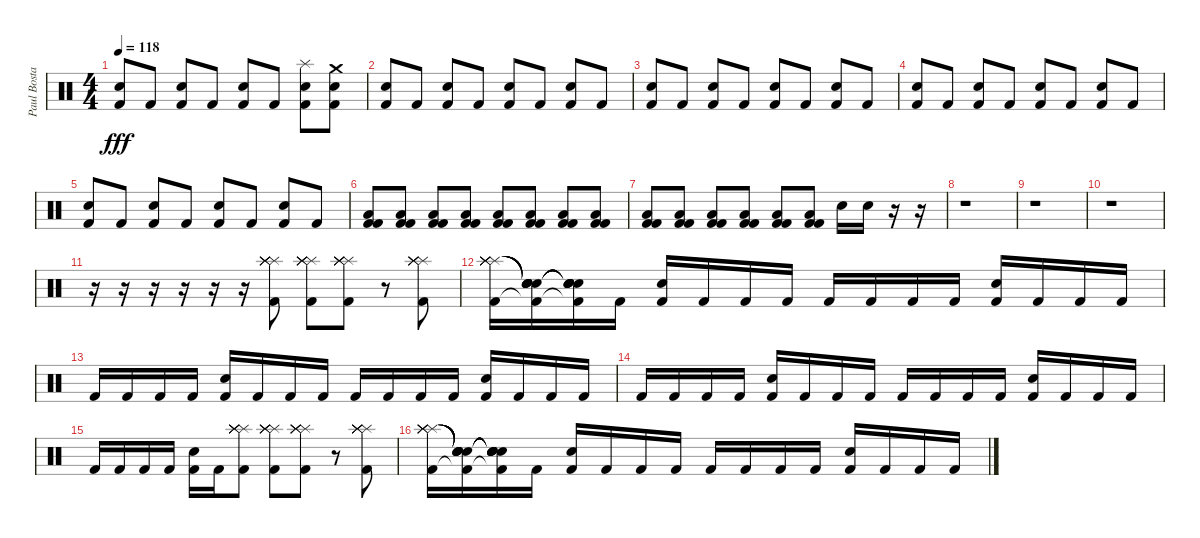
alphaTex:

\track ("Paul Bostaph" "Paul Bosta") {instrument percussion}
\staff {score}
\articulation defaults
\ts (4 4)
\tempo 118
\clef neutral
\ks c
("Snare (hit) 2" "Kick (hit) 2").8{dy fff} "Kick (hit) 2".8 ("Snare (hit) 2" "Kick (hit) 2").8 "Kick (hit) 2".8 ("Snare (hit) 2" "Kick (hit) 2").8 "Kick (hit) 2".8 ("Splash (hit)" "Snare (hit) 2" "Kick (hit) 2").8 ("Crash medium (hit)" "Snare (hit) 2" "Kick (hit) 2").8 |
("Snare (hit) 2" "Kick (hit) 2").8 "Kick (hit) 2".8 ("Snare (hit) 2" "Kick (hit) 2").8 "Kick (hit) 2".8 ("Snare (hit) 2" "Kick (hit) 2").8 "Kick (hit) 2".8 ("Snare (hit) 2" "Kick (hit) 2").8 "Kick (hit) 2".8 |
("Snare (hit) 2" "Kick (hit) 2").8 "Kick (hit) 2".8 ("Snare (hit) 2" "Kick (hit) 2").8 "Kick (hit) 2".8 ("Snare (hit) 2" "Kick (hit) 2").8 "Kick (hit) 2".8 ("Snare (hit) 2" "Kick (hit) 2").8 "Kick (hit) 2".8 |
("Snare (hit) 2" "Kick (hit) 2").8 "Kick (hit) 2".8 ("Snare (hit) 2" "Kick (hit) 2").8 "Kick (hit) 2".8 ("Snare (hit) 2" "Kick (hit) 2").8 "Kick (hit) 2".8 ("Snare (hit) 2" "Kick (hit) 2").8 "Kick (hit) 2".8 |
("Snare (hit) 2" "Kick (hit) 2").8 "Kick (hit) 2".8 ("Snare (hit) 2" "Kick (hit) 2").8 "Kick (hit) 2".8 ("Snare (hit) 2" "Kick (hit) 2").8 "Kick (hit) 2".8 ("Snare (hit) 2" "Kick (hit) 2").8 "Kick (hit) 2".8 |
("Low Floor Tom (hit)" "Kick (hit) 2" "Kick (hit) 2").8 ("Low Floor Tom (hit)" "Kick (hit) 2" "Kick (hit) 2").8 ("Low Floor Tom (hit)" "Kick (hit) 2" "Kick (hit) 2").8 ("Low Floor Tom (hit)" "Kick (hit) 2" "Kick (hit) 2").8 ("Low Floor Tom (hit)" "Kick (hit) 2" "Kick (hit) 2").8 ("Low Floor Tom (hit)" "Kick (hit) 2" "Kick (hit) 2").8 ("Low Floor Tom (hit)" "Kick (hit) 2" "Kick (hit) 2").8 ("Low Floor Tom (hit)" "Kick (hit) 2" "Kick (hit) 2").8 |
("Low Floor Tom (hit)" "Kick (hit) 2" "Kick (hit) 2").8 ("Low Floor Tom (hit)" "Kick (hit) 2" "Kick (hit) 2").8 ("Low Floor Tom (hit)" "Kick (hit) 2" "Kick (hit) 2").8 ("Low Floor Tom (hit)" "Kick (hit) 2" "Kick (hit) 2").8 ("Low Floor Tom (hit)" "Kick (hit) 2" "Kick (hit) 2").8 ("Low Floor Tom (hit)" "Kick (hit) 2" "Kick (hit) 2").8 "Snare (hit) 2".16 "Snare (hit) 2".16 r.16 r.16 |
r.1{volume 13} |
r.1 |
r.1 |
r.16 r.16 r.16 r.16 r.16 r.16 ("Splash (hit)" "Splash (hit)" "Splash (hit)" "Splash (hit)" "Splash (hit)" "Kick (hit) 2").8 ("Splash (hit)" "Splash (hit)" "Splash (hit)" "Splash (hit)" "Splash (hit)" "Kick (hit) 2").8 ("Splash (hit)" "Splash (hit)" "Splash (hit)" "Splash (hit)" "Splash (hit)" "Kick (hit) 2").8 r.8 ("Splash (hit)" "Splash (hit)" "Splash (hit)" "Splash (hit)" "Splash (hit)" "Kick (hit) 2").8 |
("Splash (hit)" "Splash (hit)" "Splash (hit)" "Splash (hit)" "Splash (hit)" "Kick (hit) 2").16 ("Snare (hit)"{t} "Snare (hit)"{t} "Snare (hit)"{t} "Snare (hit)"{t} "Snare (hit)"{t} "Kick (hit) 2"{t}).16 ("Snare (hit)"{t} "Snare (hit)"{t} "Snare (hit)"{t} "Snare (hit)"{t} "Snare (hit)"{t} "Kick (hit) 2"{t}).16 "Kick (hit) 2".16 ("Snare (hit) 2" "Kick (hit) 2").16 "Kick (hit) 2".16 "Kick (hit) 2".16 "Kick (hit) 2".16 "Kick (hit) 2".16 "Kick (hit) 2".16 "Kick (hit) 2".16 "Kick (hit) 2".16 ("Snare (hit) 2" "Kick (hit) 2").16 "Kick (hit) 2".16 "Kick (hit) 2".16 "Kick (hit) 2".16 |
"Kick (hit) 2".16 "Kick (hit) 2".16 "Kick (hit) 2".16 "Kick (hit) 2".16 ("Snare (hit) 2" "Kick (hit) 2").16 "Kick (hit) 2".16 "Kick (hit) 2".16 "Kick (hit) 2".16 "Kick (hit) 2".16 "Kick (hit) 2".16 "Kick (hit) 2".16 "Kick (hit) 2".16 ("Snare (hit) 2" "Kick (hit) 2").16 "Kick (hit) 2".16 "Kick (hit) 2".16 "Kick (hit) 2".16 |
"Kick (hit) 2".16 "Kick (hit) 2".16 "Kick (hit) 2".16 "Kick (hit) 2".16 ("Snare (hit) 2" "Kick (hit) 2").16 "Kick (hit) 2".16 "Kick (hit) 2".16 "Kick (hit) 2".16 "Kick (hit) 2".16 "Kick (hit) 2".16 "Kick (hit) 2".16 "Kick (hit) 2".16 ("Snare (hit) 2" "Kick (hit) 2").16 "Kick (hit) 2".16 "Kick (hit) 2".16 "Kick (hit) 2".16 |
"Kick (hit) 2".16 "Kick (hit) 2".16 "Kick (hit) 2".16 "Kick (hit) 2".16 ("Snare (hit) 2" "Kick (hit) 2").16 "Kick (hit) 2".16 ("Splash (hit)" "Splash (hit)" "Splash (hit)" "Splash (hit)" "Splash (hit)" "Kick (hit) 2").8 ("Splash (hit)" "Splash (hit)" "Splash (hit)" "Splash (hit)" "Splash (hit)" "Kick (hit) 2").8 ("Splash (hit)" "Splash (hit)" "Splash (hit)" "Splash (hit)" "Splash (hit)" "Kick (hit) 2").8 r.8 ("Splash (hit)" "Splash (hit)" "Splash (hit)" "Splash (hit)" "Splash (hit)" "Kick (hit) 2").8 |
("Splash (hit)" "Splash (hit)" "Splash (hit)" "Splash (hit)" "Splash (hit)" "Kick (hit) 2").16 ("Snare (hit)"{t} "Snare (hit)"{t} "Snare (hit)"{t} "Snare (hit)"{t} "Snare (hit)"{t} "Kick (hit) 2"{t}).16 ("Snare (hit)"{t} "Snare (hit)"{t} "Snare (hit)"{t} "Snare (hit)"{t} "Snare (hit)"{t} "Kick (hit) 2"{t}).16 "Kick (hit) 2".16 ("Snare (hit) 2" "Kick (hit) 2").16 "Kick (hit) 2".16 "Kick (hit) 2".16 "Kick (hit) 2".16 "Kick (hit) 2".16 "Kick (hit) 2".16 "Kick (hit) 2".16 "Kick (hit) 2".16 ("Snare (hit) 2" "Kick (hit) 2").16 "Kick (hit) 2".16 "Kick (hit) 2".16 "Kick (hit) 2".16
